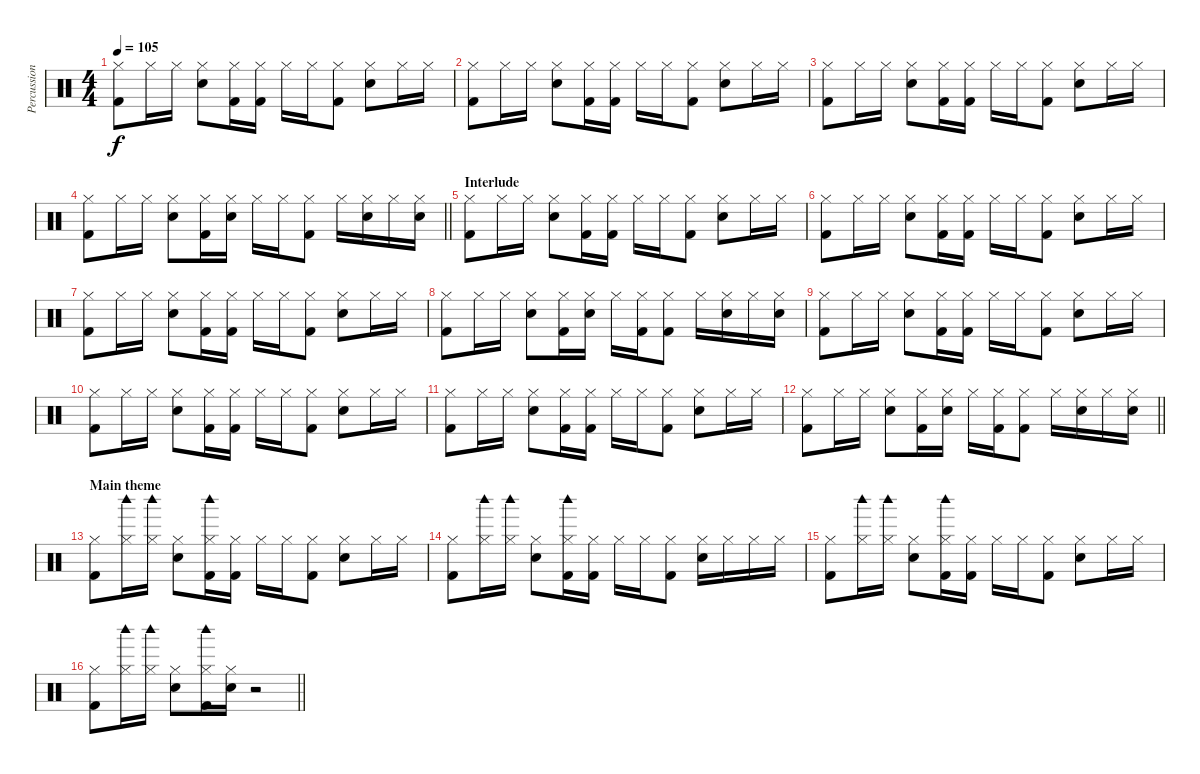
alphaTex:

\track ("Percussion" "Percussion") {instrument percussion}
\staff {score}
\articulation defaults
\ts (4 4)
\tempo 105
\clef neutral
\ks c
("Hi-Hat (closed)" "Kick (hit) 2").8{dy f} "Hi-Hat (closed)".16 "Hi-Hat (closed)".16 ("Hi-Hat (closed)" "Electric Snare (hit)").8 ("Hi-Hat (closed)" "Kick (hit) 2").16 ("Hi-Hat (closed)" "Kick (hit) 2").16 "Hi-Hat (closed)".16 "Hi-Hat (closed)".16 ("Hi-Hat (closed)" "Kick (hit) 2").8 ("Hi-Hat (closed)" "Electric Snare (hit)").8 "Hi-Hat (closed)".16 "Hi-Hat (closed)".16 |
("Hi-Hat (closed)" "Kick (hit) 2").8 "Hi-Hat (closed)".16 "Hi-Hat (closed)".16 ("Hi-Hat (closed)" "Electric Snare (hit)").8 ("Hi-Hat (closed)" "Kick (hit) 2").16 ("Hi-Hat (closed)" "Kick (hit) 2").16 "Hi-Hat (closed)".16 "Hi-Hat (closed)".16 ("Hi-Hat (closed)" "Kick (hit) 2").8 ("Hi-Hat (closed)" "Electric Snare (hit)").8 "Hi-Hat (closed)".16 "Hi-Hat (closed)".16 |
("Hi-Hat (closed)" "Kick (hit) 2").8 "Hi-Hat (closed)".16 "Hi-Hat (closed)".16 ("Hi-Hat (closed)" "Electric Snare (hit)").8 ("Hi-Hat (closed)" "Kick (hit) 2").16 ("Hi-Hat (closed)" "Kick (hit) 2").16 "Hi-Hat (closed)".16 "Hi-Hat (closed)".16 ("Hi-Hat (closed)" "Kick (hit) 2").8 ("Hi-Hat (closed)" "Electric Snare (hit)").8 "Hi-Hat (closed)".16 "Hi-Hat (closed)".16 |
\barLineRight lightlight
("Hi-Hat (closed)" "Kick (hit) 2").8 "Hi-Hat (closed)".16 "Hi-Hat (closed)".16 ("Hi-Hat (closed)" "Electric Snare (hit)").8 ("Hi-Hat (closed)" "Kick (hit) 2").16 ("Hi-Hat (closed)" "Electric Snare (hit)").16 "Hi-Hat (closed)".16 "Hi-Hat (closed)".16 ("Hi-Hat (closed)" "Kick (hit) 2").8 "Hi-Hat (closed)".16 ("Hi-Hat (closed)" "Electric Snare (hit)").16 "Hi-Hat (closed)".16 ("Hi-Hat (closed)" "Electric Snare (hit)").16 |
\section ("" "Interlude")
("Hi-Hat (closed)" "Kick (hit) 2").8 "Hi-Hat (closed)".16 "Hi-Hat (closed)".16 ("Hi-Hat (closed)" "Electric Snare (hit)").8 ("Hi-Hat (closed)" "Kick (hit) 2").16 ("Hi-Hat (closed)" "Kick (hit) 2").16 "Hi-Hat (closed)".16 "Hi-Hat (closed)".16 ("Hi-Hat (closed)" "Kick (hit) 2").8 ("Hi-Hat (closed)" "Electric Snare (hit)").8 "Hi-Hat (closed)".16 "Hi-Hat (closed)".16 |
("Hi-Hat (closed)" "Kick (hit) 2").8 "Hi-Hat (closed)".16 "Hi-Hat (closed)".16 ("Hi-Hat (closed)" "Electric Snare (hit)").8 ("Hi-Hat (closed)" "Kick (hit) 2").16 ("Hi-Hat (closed)" "Kick (hit) 2").16 "Hi-Hat (closed)".16 "Hi-Hat (closed)".16 ("Hi-Hat (closed)" "Kick (hit) 2").8 ("Hi-Hat (closed)" "Electric Snare (hit)").8 "Hi-Hat (closed)".16 "Hi-Hat (closed)".16 |
("Hi-Hat (closed)" "Kick (hit) 2").8 "Hi-Hat (closed)".16 "Hi-Hat (closed)".16 ("Hi-Hat (closed)" "Electric Snare (hit)").8 ("Hi-Hat (closed)" "Kick (hit) 2").16 ("Hi-Hat (closed)" "Kick (hit) 2").16 "Hi-Hat (closed)".16 "Hi-Hat (closed)".16 ("Hi-Hat (closed)" "Kick (hit) 2").8 ("Hi-Hat (closed)" "Electric Snare (hit)").8 "Hi-Hat (closed)".16 "Hi-Hat (closed)".16 |
("Hi-Hat (closed)" "Kick (hit) 2").8 "Hi-Hat (closed)".16 "Hi-Hat (closed)".16 ("Hi-Hat (closed)" "Electric Snare (hit)").8 ("Hi-Hat (closed)" "Kick (hit) 2").16 ("Hi-Hat (closed)" "Electric Snare (hit)").16 "Hi-Hat (closed)".16 ("Hi-Hat (closed)" "Kick (hit) 2").16 ("Hi-Hat (closed)" "Kick (hit) 2").8 "Hi-Hat (closed)".16 ("Hi-Hat (closed)" "Electric Snare (hit)").16 "Hi-Hat (closed)".16 ("Hi-Hat (closed)" "Electric Snare (hit)").16 |
("Hi-Hat (closed)" "Kick (hit) 2").8 "Hi-Hat (closed)".16 "Hi-Hat (closed)".16 ("Hi-Hat (closed)" "Electric Snare (hit)").8 ("Hi-Hat (closed)" "Kick (hit) 2").16 ("Hi-Hat (closed)" "Kick (hit) 2").16 "Hi-Hat (closed)".16 "Hi-Hat (closed)".16 ("Hi-Hat (closed)" "Kick (hit) 2").8 ("Hi-Hat (closed)" "Electric Snare (hit)").8 "Hi-Hat (closed)".16 "Hi-Hat (closed)".16 |
("Hi-Hat (closed)" "Kick (hit) 2").8 "Hi-Hat (closed)".16 "Hi-Hat (closed)".16 ("Hi-Hat (closed)" "Electric Snare (hit)").8 ("Hi-Hat (closed)" "Kick (hit) 2").16 ("Hi-Hat (closed)" "Kick (hit) 2").16 "Hi-Hat (closed)".16 "Hi-Hat (closed)".16 ("Hi-Hat (closed)" "Kick (hit) 2").8 ("Hi-Hat (closed)" "Electric Snare (hit)").8 "Hi-Hat (closed)".16 "Hi-Hat (closed)".16 |
("Hi-Hat (closed)" "Kick (hit) 2").8 "Hi-Hat (closed)".16 "Hi-Hat (closed)".16 ("Hi-Hat (closed)" "Electric Snare (hit)").8 ("Hi-Hat (closed)" "Kick (hit) 2").16 ("Hi-Hat (closed)" "Kick (hit) 2").16 "Hi-Hat (closed)".16 "Hi-Hat (closed)".16 ("Hi-Hat (closed)" "Kick (hit) 2").8 ("Hi-Hat (closed)" "Electric Snare (hit)").8 "Hi-Hat (closed)".16 "Hi-Hat (closed)".16 |
\barLineRight lightlight
("Hi-Hat (closed)" "Kick (hit) 2").8 "Hi-Hat (closed)".16 "Hi-Hat (closed)".16 ("Hi-Hat (closed)" "Electric Snare (hit)").8 ("Hi-Hat (closed)" "Kick (hit) 2").16 ("Hi-Hat (closed)" "Electric Snare (hit)").16 "Hi-Hat (closed)".16 ("Hi-Hat (closed)" "Kick (hit) 2").16 ("Hi-Hat (closed)" "Kick (hit) 2").8 "Hi-Hat (closed)".16 ("Hi-Hat (closed)" "Electric Snare (hit)").16 "Hi-Hat (closed)".16 ("Hi-Hat (closed)" "Electric Snare (hit)").16 |
\section ("" "Main theme")
("Hi-Hat (closed)" "Kick (hit) 2").8 ("Hi-Hat (closed)" "Woodblock high (hit)").16 ("Hi-Hat (closed)" "Woodblock high (hit)").16 ("Hi-Hat (closed)" "Electric Snare (hit)").8 ("Hi-Hat (closed)" "Woodblock high (hit)" "Kick (hit) 2").16 ("Hi-Hat (closed)" "Kick (hit) 2").16 "Hi-Hat (closed)".16 "Hi-Hat (closed)".16 ("Hi-Hat (closed)" "Kick (hit) 2").8 ("Hi-Hat (closed)" "Electric Snare (hit)").8 "Hi-Hat (closed)".16 "Hi-Hat (closed)".16 |
("Hi-Hat (closed)" "Kick (hit) 2").8 ("Hi-Hat (closed)" "Woodblock high (hit)").16 ("Hi-Hat (closed)" "Woodblock high (hit)").16 ("Hi-Hat (closed)" "Electric Snare (hit)").8 ("Hi-Hat (closed)" "Woodblock high (hit)" "Kick (hit) 2").16 ("Hi-Hat (closed)" "Kick (hit) 2").16 "Hi-Hat (closed)".16 "Hi-Hat (closed)".16 ("Hi-Hat (closed)" "Kick (hit) 2").8 ("Hi-Hat (closed)" "Electric Snare (hit)").16 "Hi-Hat (closed)".16 "Hi-Hat (closed)".16 "Hi-Hat (closed)".16 |
("Hi-Hat (closed)" "Kick (hit) 2").8 ("Hi-Hat (closed)" "Woodblock high (hit)").16 ("Hi-Hat (closed)" "Woodblock high (hit)").16 ("Hi-Hat (closed)" "Electric Snare (hit)").8 ("Hi-Hat (closed)" "Woodblock high (hit)" "Kick (hit) 2").16 ("Hi-Hat (closed)" "Kick (hit) 2").16 "Hi-Hat (closed)".16 "Hi-Hat (closed)".16 ("Hi-Hat (closed)" "Kick (hit) 2").8 ("Hi-Hat (closed)" "Electric Snare (hit)").8 "Hi-Hat (closed)".16 "Hi-Hat (closed)".16 |
\barLineRight lightlight
("Hi-Hat (closed)" "Kick (hit) 2").8 ("Hi-Hat (closed)" "Woodblock high (hit)").16 ("Hi-Hat (closed)" "Woodblock high (hit)").16 ("Hi-Hat (closed)" "Electric Snare (hit)").8 ("Hi-Hat (closed)" "Woodblock high (hit)" "Kick (hit) 2").16 ("Hi-Hat (closed)" "Electric Snare (hit)").16 r.2
